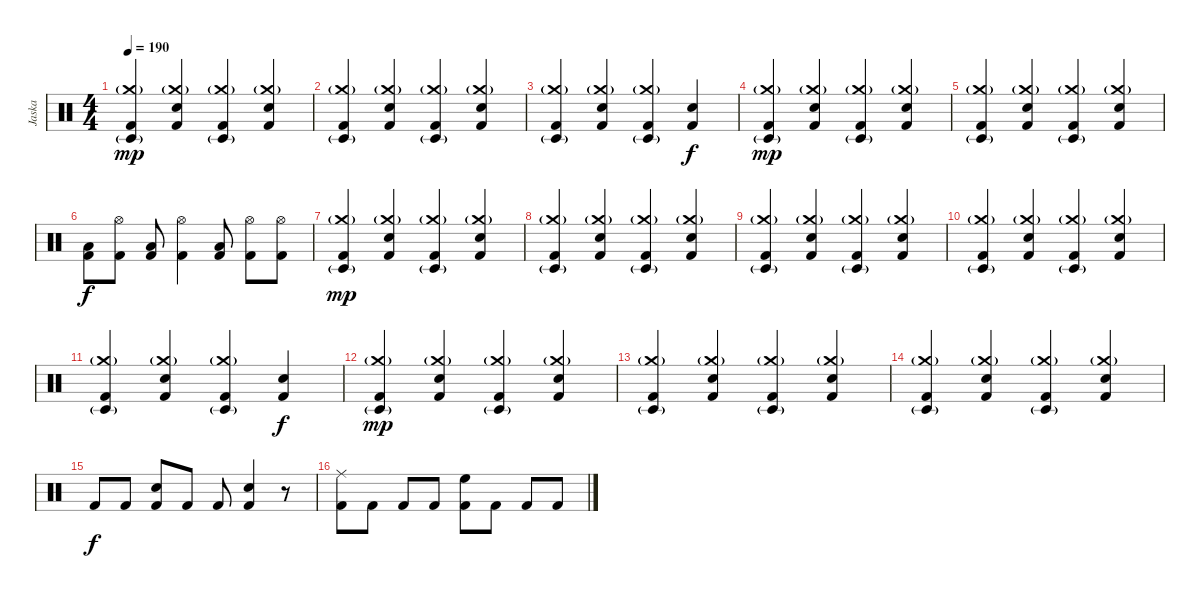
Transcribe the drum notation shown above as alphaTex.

\track ("Jaska" "Jaska") {instrument percussion}
\staff {score}
\articulation defaults
\ts (4 4)
\tempo 190
\clef neutral
\ks c
("Kick (hit) 2" "Crash medium (hit)"{g} "Timbale low (hit)"{g}).4{dy mp} ("Kick (hit) 2" "Crash medium (hit)"{g} "Snare (hit) 2").4 ("Kick (hit) 2" "Crash medium (hit)"{g} "Timbale low (hit)"{g}).4 ("Kick (hit) 2" "Crash medium (hit)"{g} "Snare (hit) 2").4 |
("Kick (hit) 2" "Crash medium (hit)"{g} "Timbale low (hit)"{g}).4 ("Kick (hit) 2" "Crash medium (hit)"{g} "Snare (hit) 2").4 ("Kick (hit) 2" "Crash medium (hit)"{g} "Timbale low (hit)"{g}).4 ("Kick (hit) 2" "Crash medium (hit)"{g} "Snare (hit) 2").4 |
("Kick (hit) 2" "Crash medium (hit)"{g} "Timbale low (hit)"{g}).4 ("Kick (hit) 2" "Crash medium (hit)"{g} "Snare (hit) 2").4 ("Kick (hit) 2" "Crash medium (hit)"{g} "Timbale low (hit)"{g}).4 ("Kick (hit) 2" "Snare (hit) 2").4{dy f} |
("Kick (hit) 2" "Crash medium (hit)"{g} "Timbale low (hit)"{g}).4{dy mp} ("Kick (hit) 2" "Crash medium (hit)"{g} "Snare (hit) 2").4 ("Kick (hit) 2" "Crash medium (hit)"{g} "Timbale low (hit)"{g}).4 ("Kick (hit) 2" "Crash medium (hit)"{g} "Snare (hit) 2").4 |
("Kick (hit) 2" "Crash medium (hit)"{g} "Timbale low (hit)"{g}).4 ("Kick (hit) 2" "Crash medium (hit)"{g} "Snare (hit) 2").4 ("Kick (hit) 2" "Crash medium (hit)"{g} "Timbale low (hit)"{g}).4 ("Kick (hit) 2" "Crash medium (hit)"{g} "Snare (hit) 2").4 |
("Kick (hit) 2" "Low Tom (hit)").8{dy f} ("Kick (hit) 2" "Hi-Hat (open)").8 ("Kick (hit) 2" "Low Tom (hit)").8 ("Kick (hit) 2" "Hi-Hat (open)").4 ("Kick (hit) 2" "Low Tom (hit)").8 ("Kick (hit) 2" "Hi-Hat (open)").8 ("Kick (hit) 2" "Hi-Hat (open)").8 |
("Kick (hit) 2" "Crash medium (hit)"{g} "Timbale low (hit)"{g}).4{dy mp} ("Kick (hit) 2" "Crash medium (hit)"{g} "Snare (hit) 2").4 ("Kick (hit) 2" "Crash medium (hit)"{g} "Timbale low (hit)"{g}).4 ("Kick (hit) 2" "Crash medium (hit)"{g} "Snare (hit) 2").4 |
("Kick (hit) 2" "Crash medium (hit)"{g} "Timbale low (hit)"{g}).4 ("Kick (hit) 2" "Crash medium (hit)"{g} "Snare (hit) 2").4 ("Kick (hit) 2" "Crash medium (hit)"{g} "Timbale low (hit)"{g}).4 ("Kick (hit) 2" "Crash medium (hit)"{g} "Snare (hit) 2").4 |
("Kick (hit) 2" "Crash medium (hit)"{g} "Timbale low (hit)"{g}).4 ("Kick (hit) 2" "Crash medium (hit)"{g} "Snare (hit) 2").4 ("Kick (hit) 2" "Crash medium (hit)"{g} "Timbale low (hit)"{g}).4 ("Kick (hit) 2" "Crash medium (hit)"{g} "Snare (hit) 2").4 |
("Kick (hit) 2" "Crash medium (hit)"{g} "Timbale low (hit)"{g}).4 ("Kick (hit) 2" "Crash medium (hit)"{g} "Snare (hit) 2").4 ("Kick (hit) 2" "Crash medium (hit)"{g} "Timbale low (hit)"{g}).4 ("Kick (hit) 2" "Crash medium (hit)"{g} "Snare (hit) 2").4 |
("Kick (hit) 2" "Crash medium (hit)"{g} "Timbale low (hit)"{g}).4 ("Kick (hit) 2" "Crash medium (hit)"{g} "Snare (hit) 2").4 ("Kick (hit) 2" "Crash medium (hit)"{g} "Timbale low (hit)"{g}).4 ("Kick (hit) 2" "Snare (hit) 2").4{dy f} |
("Kick (hit) 2" "Crash medium (hit)"{g} "Timbale low (hit)"{g}).4{dy mp} ("Kick (hit) 2" "Crash medium (hit)"{g} "Snare (hit) 2").4 ("Kick (hit) 2" "Crash medium (hit)"{g} "Timbale low (hit)"{g}).4 ("Kick (hit) 2" "Crash medium (hit)"{g} "Snare (hit) 2").4 |
("Kick (hit) 2" "Crash medium (hit)"{g} "Timbale low (hit)"{g}).4 ("Kick (hit) 2" "Crash medium (hit)"{g} "Snare (hit) 2").4 ("Kick (hit) 2" "Crash medium (hit)"{g} "Timbale low (hit)"{g}).4 ("Kick (hit) 2" "Crash medium (hit)"{g} "Snare (hit) 2").4 |
("Kick (hit) 2" "Crash medium (hit)"{g} "Timbale low (hit)"{g}).4 ("Kick (hit) 2" "Crash medium (hit)"{g} "Snare (hit) 2").4 ("Kick (hit) 2" "Crash medium (hit)"{g} "Timbale low (hit)"{g}).4 ("Kick (hit) 2" "Crash medium (hit)"{g} "Snare (hit) 2").4 |
"Kick (hit) 2".8{dy f} "Kick (hit) 2".8 ("Kick (hit) 2" "Electric Snare (hit)").8 "Kick (hit) 2".8 "Kick (hit) 2".8 ("Kick (hit) 2" "Electric Snare (hit)").4 r.8 |
("Kick (hit) 2" "Ride (middle)").8 "Kick (hit) 2".8 "Kick (hit) 2".8 "Kick (hit) 2".8 ("Kick (hit) 2" "High Floor Tom (hit)").8 "Kick (hit) 2".8 "Kick (hit) 2".8 "Kick (hit) 2".8
